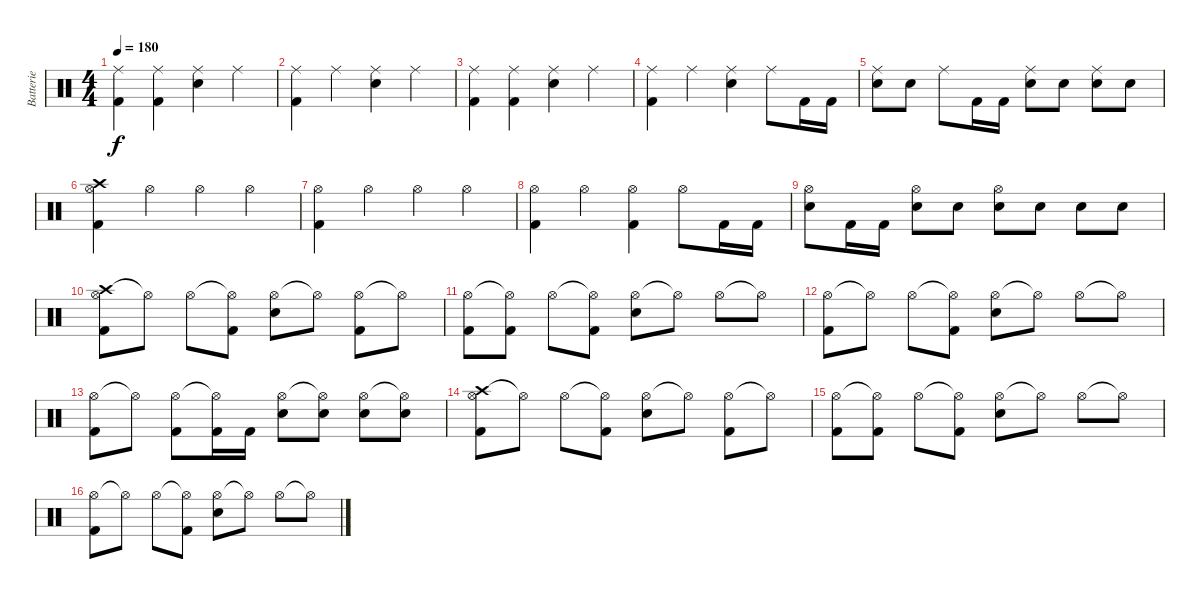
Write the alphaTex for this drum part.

\track ("Batterie" "Batterie") {instrument percussion}
\staff {score}
\articulation defaults
\ts (4 4)
\tempo 180
\clef neutral
\ks c
("Ride (middle)" "Kick (hit) 2").4{dy f} ("Ride (middle)" "Kick (hit) 2").4 ("Ride (middle)" "Electric Snare (hit)").4 "Ride (middle)".4 |
("Ride (middle)" "Kick (hit) 2").4 "Ride (middle)".4 ("Ride (middle)" "Electric Snare (hit)").4 "Ride (middle)".4 |
("Ride (middle)" "Kick (hit) 2").4 ("Ride (middle)" "Kick (hit) 2").4 ("Ride (middle)" "Electric Snare (hit)").4 "Ride (middle)".4 |
("Ride (middle)" "Kick (hit) 2").4 "Ride (middle)".4 ("Ride (middle)" "Electric Snare (hit)").4 "Ride (middle)".8 "Kick (hit) 2".16 "Kick (hit) 2".16 |
("Ride (middle)" "Electric Snare (hit)").8 "Electric Snare (hit)".8 "Ride (middle)".8 "Kick (hit) 2".16 "Kick (hit) 2".16 ("Ride (middle)" "Electric Snare (hit)").8 "Electric Snare (hit)".8 ("Ride (middle)" "Electric Snare (hit)").8 "Electric Snare (hit)".8 |
("Crash high (hit)" "Hi-Hat (open)" "Kick (hit) 2").4 "Hi-Hat (open)".4 "Hi-Hat (open)".4 "Hi-Hat (open)".4 |
("Hi-Hat (open)" "Kick (hit) 2").4 "Hi-Hat (open)".4 "Hi-Hat (open)".4 "Hi-Hat (open)".4 |
("Hi-Hat (open)" "Kick (hit) 2").4 "Hi-Hat (open)".4 ("Hi-Hat (open)" "Kick (hit) 2").4 "Hi-Hat (open)".8 "Kick (hit) 2".16 "Kick (hit) 2".16 |
("Hi-Hat (open)" "Electric Snare (hit)").8 "Kick (hit) 2".16 "Kick (hit) 2".16 ("Hi-Hat (open)" "Electric Snare (hit)").8 "Electric Snare (hit)".8 ("Hi-Hat (open)" "Electric Snare (hit)").8 "Electric Snare (hit)".8 "Electric Snare (hit)".8 "Electric Snare (hit)".8 |
("Crash high (hit)" "Hi-Hat (open)" "Kick (hit) 2").8 "Hi-Hat (open)"{t}.8 "Hi-Hat (open)".8 ("Hi-Hat (open)"{t} "Kick (hit) 2").8 ("Hi-Hat (open)" "Electric Snare (hit)").8 "Hi-Hat (open)"{t}.8 ("Hi-Hat (open)" "Kick (hit) 2").8 "Hi-Hat (open)"{t}.8 |
("Hi-Hat (open)" "Kick (hit) 2").8 ("Hi-Hat (open)"{t} "Kick (hit) 2").8 "Hi-Hat (open)".8 ("Hi-Hat (open)"{t} "Kick (hit) 2").8 ("Hi-Hat (open)" "Electric Snare (hit)").8 "Hi-Hat (open)"{t}.8 "Hi-Hat (open)".8 "Hi-Hat (open)"{t}.8 |
("Hi-Hat (open)" "Kick (hit) 2").8 "Hi-Hat (open)"{t}.8 "Hi-Hat (open)".8 ("Hi-Hat (open)"{t} "Kick (hit) 2").8 ("Hi-Hat (open)" "Electric Snare (hit)").8 "Hi-Hat (open)"{t}.8 "Hi-Hat (open)".8 "Hi-Hat (open)"{t}.8 |
("Hi-Hat (open)" "Kick (hit) 2").8 "Hi-Hat (open)"{t}.8 ("Hi-Hat (open)" "Kick (hit) 2").8 ("Hi-Hat (open)"{t} "Kick (hit) 2").16 "Kick (hit) 2".16 ("Hi-Hat (open)" "Electric Snare (hit)").8 ("Hi-Hat (open)"{t} "Electric Snare (hit)").8 ("Hi-Hat (open)" "Electric Snare (hit)").8 ("Hi-Hat (open)"{t} "Electric Snare (hit)").8 |
("Crash high (hit)" "Hi-Hat (open)" "Kick (hit) 2").8 "Hi-Hat (open)"{t}.8 "Hi-Hat (open)".8 ("Hi-Hat (open)"{t} "Kick (hit) 2").8 ("Hi-Hat (open)" "Electric Snare (hit)").8 "Hi-Hat (open)"{t}.8 ("Hi-Hat (open)" "Kick (hit) 2").8 "Hi-Hat (open)"{t}.8 |
("Hi-Hat (open)" "Kick (hit) 2").8 ("Hi-Hat (open)"{t} "Kick (hit) 2").8 "Hi-Hat (open)".8 ("Hi-Hat (open)"{t} "Kick (hit) 2").8 ("Hi-Hat (open)" "Electric Snare (hit)").8 "Hi-Hat (open)"{t}.8 "Hi-Hat (open)".8 "Hi-Hat (open)"{t}.8 |
("Hi-Hat (open)" "Kick (hit) 2").8 "Hi-Hat (open)"{t}.8 "Hi-Hat (open)".8 ("Hi-Hat (open)"{t} "Kick (hit) 2").8 ("Hi-Hat (open)" "Electric Snare (hit)").8 "Hi-Hat (open)"{t}.8 "Hi-Hat (open)".8 "Hi-Hat (open)"{t}.8
